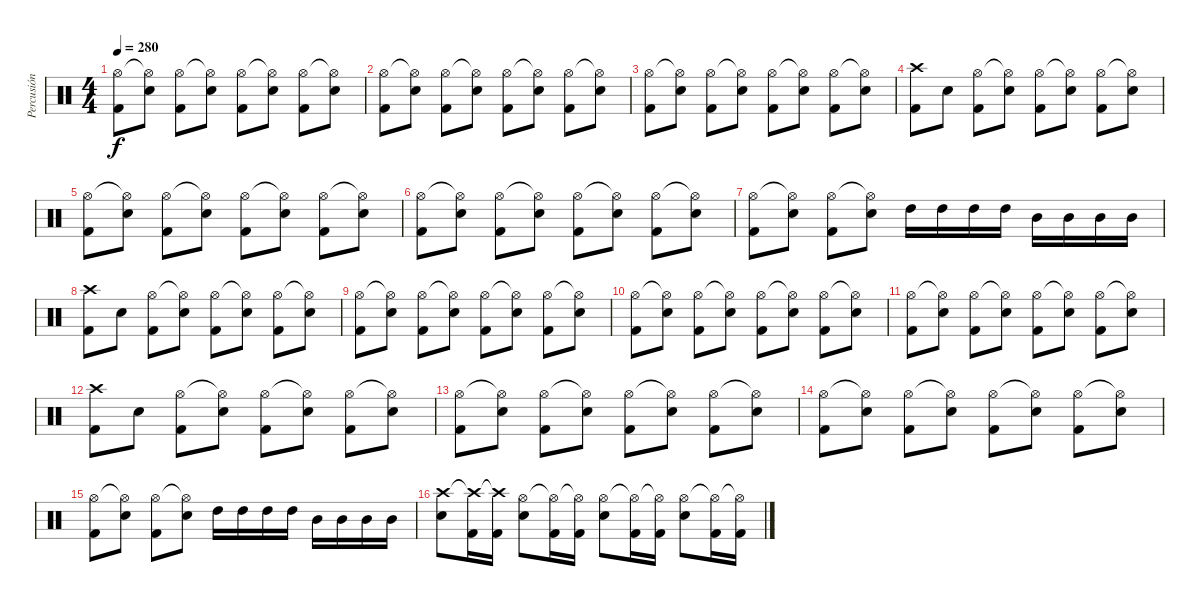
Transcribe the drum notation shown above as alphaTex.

\track ("Percusión" "Percusión") {instrument percussion}
\staff {score}
\articulation defaults
\ts (4 4)
\tempo 280
\clef neutral
\ks c
("Kick (hit) 2" "Hi-Hat (open)").8{dy f} ("Snare (hit) 2" "Hi-Hat (open)"{t}).8 ("Kick (hit) 2" "Hi-Hat (open)").8 ("Snare (hit) 2" "Hi-Hat (open)"{t}).8 ("Kick (hit) 2" "Hi-Hat (open)").8 ("Snare (hit) 2" "Hi-Hat (open)"{t}).8 ("Kick (hit) 2" "Hi-Hat (open)").8 ("Snare (hit) 2" "Hi-Hat (open)"{t}).8 |
("Kick (hit) 2" "Hi-Hat (open)").8 ("Snare (hit) 2" "Hi-Hat (open)"{t}).8 ("Kick (hit) 2" "Hi-Hat (open)").8 ("Snare (hit) 2" "Hi-Hat (open)"{t}).8 ("Kick (hit) 2" "Hi-Hat (open)").8 ("Snare (hit) 2" "Hi-Hat (open)"{t}).8 ("Kick (hit) 2" "Hi-Hat (open)").8 ("Snare (hit) 2" "Hi-Hat (open)"{t}).8 |
("Kick (hit) 2" "Hi-Hat (open)").8 ("Snare (hit) 2" "Hi-Hat (open)"{t}).8 ("Kick (hit) 2" "Hi-Hat (open)").8 ("Snare (hit) 2" "Hi-Hat (open)"{t}).8 ("Kick (hit) 2" "Hi-Hat (open)").8 ("Snare (hit) 2" "Hi-Hat (open)"{t}).8 ("Kick (hit) 2" "Hi-Hat (open)").8 ("Snare (hit) 2" "Hi-Hat (open)"{t}).8 |
("Kick (hit) 2" "Crash high (hit)").8 "Snare (hit) 2".8 ("Kick (hit) 2" "Hi-Hat (open)").8 ("Snare (hit) 2" "Hi-Hat (open)"{t}).8 ("Kick (hit) 2" "Hi-Hat (open)").8 ("Snare (hit) 2" "Hi-Hat (open)"{t}).8 ("Kick (hit) 2" "Hi-Hat (open)").8 ("Snare (hit) 2" "Hi-Hat (open)"{t}).8 |
("Kick (hit) 2" "Hi-Hat (open)").8 ("Snare (hit) 2" "Hi-Hat (open)"{t}).8 ("Kick (hit) 2" "Hi-Hat (open)").8 ("Snare (hit) 2" "Hi-Hat (open)"{t}).8 ("Kick (hit) 2" "Hi-Hat (open)").8 ("Snare (hit) 2" "Hi-Hat (open)"{t}).8 ("Kick (hit) 2" "Hi-Hat (open)").8 ("Snare (hit) 2" "Hi-Hat (open)"{t}).8 |
("Kick (hit) 2" "Hi-Hat (open)").8 ("Snare (hit) 2" "Hi-Hat (open)"{t}).8 ("Kick (hit) 2" "Hi-Hat (open)").8 ("Snare (hit) 2" "Hi-Hat (open)"{t}).8 ("Kick (hit) 2" "Hi-Hat (open)").8 ("Snare (hit) 2" "Hi-Hat (open)"{t}).8 ("Kick (hit) 2" "Hi-Hat (open)").8 ("Snare (hit) 2" "Hi-Hat (open)"{t}).8 |
("Kick (hit) 2" "Hi-Hat (open)").8 ("Snare (hit) 2" "Hi-Hat (open)"{t}).8 ("Kick (hit) 2" "Hi-Hat (open)").8 ("Snare (hit) 2" "Hi-Hat (open)"{t}).8 "High Tom (hit)".16 "High Tom (hit)".16 "High Tom (hit)".16 "High Tom (hit)".16 "Mid Tom (hit)".16 "Mid Tom (hit)".16 "Mid Tom (hit)".16 "Mid Tom (hit)".16 |
("Kick (hit) 2" "Crash high (hit)").8 "Snare (hit) 2".8 ("Kick (hit) 2" "Hi-Hat (open)").8 ("Snare (hit) 2" "Hi-Hat (open)"{t}).8 ("Kick (hit) 2" "Hi-Hat (open)").8 ("Snare (hit) 2" "Hi-Hat (open)"{t}).8 ("Kick (hit) 2" "Hi-Hat (open)").8 ("Snare (hit) 2" "Hi-Hat (open)"{t}).8 |
("Kick (hit) 2" "Hi-Hat (open)").8 ("Snare (hit) 2" "Hi-Hat (open)"{t}).8 ("Kick (hit) 2" "Hi-Hat (open)").8 ("Snare (hit) 2" "Hi-Hat (open)"{t}).8 ("Kick (hit) 2" "Hi-Hat (open)").8 ("Snare (hit) 2" "Hi-Hat (open)"{t}).8 ("Kick (hit) 2" "Hi-Hat (open)").8 ("Snare (hit) 2" "Hi-Hat (open)"{t}).8 |
("Kick (hit) 2" "Hi-Hat (open)").8 ("Snare (hit) 2" "Hi-Hat (open)"{t}).8 ("Kick (hit) 2" "Hi-Hat (open)").8 ("Snare (hit) 2" "Hi-Hat (open)"{t}).8 ("Kick (hit) 2" "Hi-Hat (open)").8 ("Snare (hit) 2" "Hi-Hat (open)"{t}).8 ("Kick (hit) 2" "Hi-Hat (open)").8 ("Snare (hit) 2" "Hi-Hat (open)"{t}).8 |
("Kick (hit) 2" "Hi-Hat (open)").8 ("Snare (hit) 2" "Hi-Hat (open)"{t}).8 ("Kick (hit) 2" "Hi-Hat (open)").8 ("Snare (hit) 2" "Hi-Hat (open)"{t}).8 ("Kick (hit) 2" "Hi-Hat (open)").8 ("Snare (hit) 2" "Hi-Hat (open)"{t}).8 ("Kick (hit) 2" "Hi-Hat (open)").8 ("Snare (hit) 2" "Hi-Hat (open)"{t}).8 |
("Kick (hit) 2" "Crash high (hit)").8 "Snare (hit) 2".8 ("Kick (hit) 2" "Hi-Hat (open)").8 ("Snare (hit) 2" "Hi-Hat (open)"{t}).8 ("Kick (hit) 2" "Hi-Hat (open)").8 ("Snare (hit) 2" "Hi-Hat (open)"{t}).8 ("Kick (hit) 2" "Hi-Hat (open)").8 ("Snare (hit) 2" "Hi-Hat (open)"{t}).8 |
("Kick (hit) 2" "Hi-Hat (open)").8 ("Snare (hit) 2" "Hi-Hat (open)"{t}).8 ("Kick (hit) 2" "Hi-Hat (open)").8 ("Snare (hit) 2" "Hi-Hat (open)"{t}).8 ("Kick (hit) 2" "Hi-Hat (open)").8 ("Snare (hit) 2" "Hi-Hat (open)"{t}).8 ("Kick (hit) 2" "Hi-Hat (open)").8 ("Snare (hit) 2" "Hi-Hat (open)"{t}).8 |
("Kick (hit) 2" "Hi-Hat (open)").8 ("Snare (hit) 2" "Hi-Hat (open)"{t}).8 ("Kick (hit) 2" "Hi-Hat (open)").8 ("Snare (hit) 2" "Hi-Hat (open)"{t}).8 ("Kick (hit) 2" "Hi-Hat (open)").8 ("Snare (hit) 2" "Hi-Hat (open)"{t}).8 ("Kick (hit) 2" "Hi-Hat (open)").8 ("Snare (hit) 2" "Hi-Hat (open)"{t}).8 |
("Kick (hit) 2" "Hi-Hat (open)").8 ("Snare (hit) 2" "Hi-Hat (open)"{t}).8 ("Kick (hit) 2" "Hi-Hat (open)").8 ("Snare (hit) 2" "Hi-Hat (open)"{t}).8 "High Tom (hit)".16 "High Tom (hit)".16 "High Tom (hit)".16 "High Tom (hit)".16 "Mid Tom (hit)".16 "Mid Tom (hit)".16 "Mid Tom (hit)".16 "Mid Tom (hit)".16 |
("Snare (hit) 2" "Crash high (hit)").8 ("Kick (hit) 2" "Crash high (hit)"{t}).16 ("Kick (hit) 2" "Crash high (hit)"{t}).16 ("Snare (hit) 2" "Hi-Hat (open)").8 ("Kick (hit) 2" "Hi-Hat (open)"{t}).16 ("Kick (hit) 2" "Hi-Hat (open)"{t}).16 ("Snare (hit) 2" "Hi-Hat (open)").8 ("Kick (hit) 2" "Hi-Hat (open)"{t}).16 ("Kick (hit) 2" "Hi-Hat (open)"{t}).16 ("Snare (hit) 2" "Hi-Hat (open)").8 ("Kick (hit) 2" "Hi-Hat (open)"{t}).16 ("Kick (hit) 2" "Hi-Hat (open)"{t}).16
